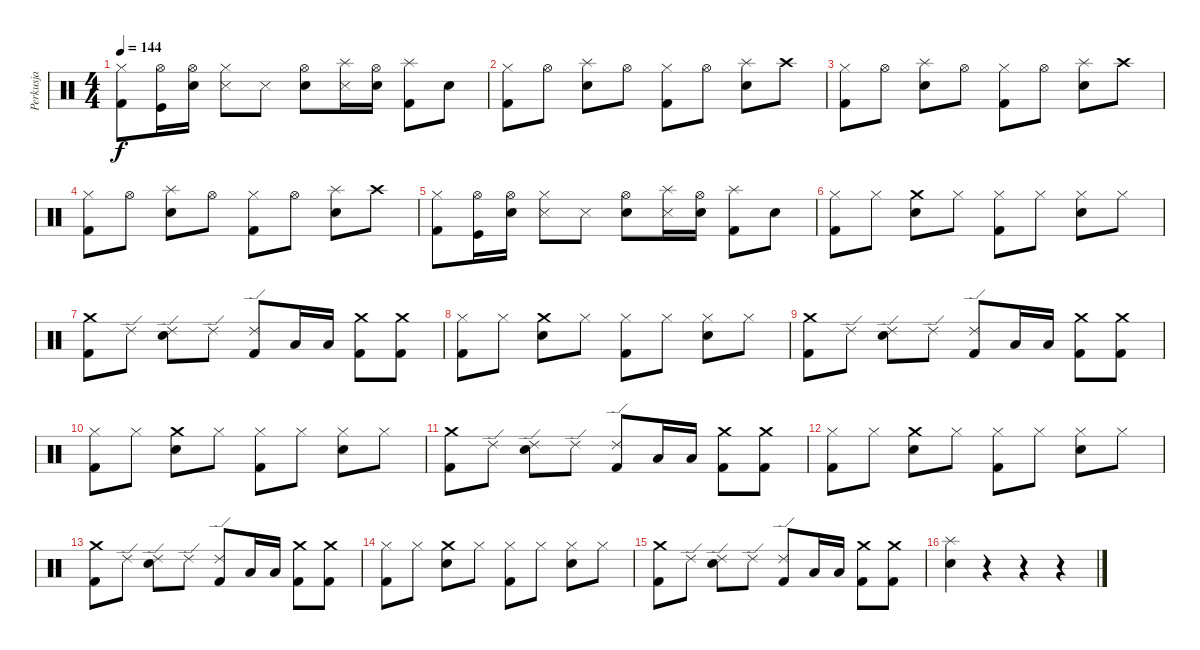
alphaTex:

\track ("Perkusja" "Perkusja") {instrument percussion}
\staff {score}
\articulation defaults
\ts (4 4)
\tempo 144
\clef neutral
\ks c
("Kick (hit) 2" "Hi-Hat (closed)").8{dy f} ("Hi-Hat (open)" "Kick (hit)").16 ("Snare (hit) 2" "Hi-Hat (open)").16 ("Snare (side stick) 3" "Hi-Hat (closed)").8 "Snare (side stick) 3".8 ("Snare (hit) 2" "Hi-Hat (open)").8 ("Snare (side stick) 3" "Splash (hit)").16 ("Snare (hit) 2" "Hi-Hat (open)").16 ("Kick (hit) 2" "Splash (hit)").8 "Snare (hit) 2".8 |
("Kick (hit) 2" "Hi-Hat (closed)").8 "Hi-Hat (open)".8 ("Snare (hit) 2" "Splash (hit)").8 "Hi-Hat (open)".8 ("Kick (hit) 2" "Hi-Hat (closed)").8 "Hi-Hat (open)".8 ("Snare (hit) 2" "Splash (hit)").8 "Crash high (hit)".8 |
("Kick (hit) 2" "Hi-Hat (closed)").8 "Hi-Hat (open)".8 ("Snare (hit) 2" "Splash (hit)").8 "Hi-Hat (open)".8 ("Kick (hit) 2" "Hi-Hat (closed)").8 "Hi-Hat (open)".8 ("Snare (hit) 2" "Splash (hit)").8 "Crash high (hit)".8 |
("Kick (hit) 2" "Hi-Hat (closed)").8 "Hi-Hat (open)".8 ("Snare (hit) 2" "Splash (hit)").8 "Hi-Hat (open)".8 ("Kick (hit) 2" "Hi-Hat (closed)").8 "Hi-Hat (open)".8 ("Snare (hit) 2" "Splash (hit)").8 "Crash high (hit)".8 |
("Kick (hit) 2" "Hi-Hat (closed)").8 ("Hi-Hat (open)" "Kick (hit)").16 ("Snare (hit) 2" "Hi-Hat (open)").16 ("Snare (side stick) 3" "Hi-Hat (closed)").8 "Snare (side stick) 3".8 ("Snare (hit) 2" "Hi-Hat (open)").8 ("Snare (side stick) 3" "Splash (hit)").16 ("Snare (hit) 2" "Hi-Hat (open)").16 ("Kick (hit) 2" "Splash (hit)").8 "Snare (hit) 2".8 |
("Hi-Hat (closed)" "Kick (hit) 2").8 "Hi-Hat (closed)".8 ("Crash medium (hit)" "Snare (hit) 2").8 "Hi-Hat (closed)".8 ("Hi-Hat (closed)" "Kick (hit) 2").8 "Hi-Hat (closed)".8 ("Snare (hit) 2" "Hi-Hat (closed)").8 "Hi-Hat (closed)".8 |
("Crash medium (hit)" "Kick (hit) 2").8 "Ride (edge) 2".8 ("Snare (hit) 2" "Ride (edge) 2").8 "Ride (edge) 2".8 ("Ride (edge) 2" "Kick (hit) 2").8 "Low Tom (hit)".16 "Low Tom (hit)".16 ("Crash medium (hit)" "Kick (hit) 2").8 ("Crash medium (hit)" "Kick (hit) 2").8 |
("Hi-Hat (closed)" "Kick (hit) 2").8 "Hi-Hat (closed)".8 ("Crash medium (hit)" "Snare (hit) 2").8 "Hi-Hat (closed)".8 ("Hi-Hat (closed)" "Kick (hit) 2").8 "Hi-Hat (closed)".8 ("Snare (hit) 2" "Hi-Hat (closed)").8 "Hi-Hat (closed)".8 |
("Crash medium (hit)" "Kick (hit) 2").8 "Ride (edge) 2".8 ("Snare (hit) 2" "Ride (edge) 2").8 "Ride (edge) 2".8 ("Ride (edge) 2" "Kick (hit) 2").8 "Low Tom (hit)".16 "Low Tom (hit)".16 ("Crash medium (hit)" "Kick (hit) 2").8 ("Crash medium (hit)" "Kick (hit) 2").8 |
("Hi-Hat (closed)" "Kick (hit) 2").8 "Hi-Hat (closed)".8 ("Crash medium (hit)" "Snare (hit) 2").8 "Hi-Hat (closed)".8 ("Hi-Hat (closed)" "Kick (hit) 2").8 "Hi-Hat (closed)".8 ("Snare (hit) 2" "Hi-Hat (closed)").8 "Hi-Hat (closed)".8 |
("Crash medium (hit)" "Kick (hit) 2").8 "Ride (edge) 2".8 ("Snare (hit) 2" "Ride (edge) 2").8 "Ride (edge) 2".8 ("Ride (edge) 2" "Kick (hit) 2").8 "Low Tom (hit)".16 "Low Tom (hit)".16 ("Crash medium (hit)" "Kick (hit) 2").8 ("Crash medium (hit)" "Kick (hit) 2").8 |
("Hi-Hat (closed)" "Kick (hit) 2").8 "Hi-Hat (closed)".8 ("Crash medium (hit)" "Snare (hit) 2").8 "Hi-Hat (closed)".8 ("Hi-Hat (closed)" "Kick (hit) 2").8 "Hi-Hat (closed)".8 ("Snare (hit) 2" "Hi-Hat (closed)").8 "Hi-Hat (closed)".8 |
("Crash medium (hit)" "Kick (hit) 2").8 "Ride (edge) 2".8 ("Snare (hit) 2" "Ride (edge) 2").8 "Ride (edge) 2".8 ("Ride (edge) 2" "Kick (hit) 2").8 "Low Tom (hit)".16 "Low Tom (hit)".16 ("Crash medium (hit)" "Kick (hit) 2").8 ("Crash medium (hit)" "Kick (hit) 2").8 |
("Hi-Hat (closed)" "Kick (hit) 2").8 "Hi-Hat (closed)".8 ("Crash medium (hit)" "Snare (hit) 2").8 "Hi-Hat (closed)".8 ("Hi-Hat (closed)" "Kick (hit) 2").8 "Hi-Hat (closed)".8 ("Snare (hit) 2" "Hi-Hat (closed)").8 "Hi-Hat (closed)".8 |
("Crash medium (hit)" "Kick (hit) 2").8 "Ride (edge) 2".8 ("Snare (hit) 2" "Ride (edge) 2").8 "Ride (edge) 2".8 ("Ride (edge) 2" "Kick (hit) 2").8 "Low Tom (hit)".16 "Low Tom (hit)".16 ("Crash medium (hit)" "Kick (hit) 2").8 ("Crash medium (hit)" "Kick (hit) 2").8 |
("Splash (hit)" "Snare (hit) 2").4 r.4 r.4 r.4
